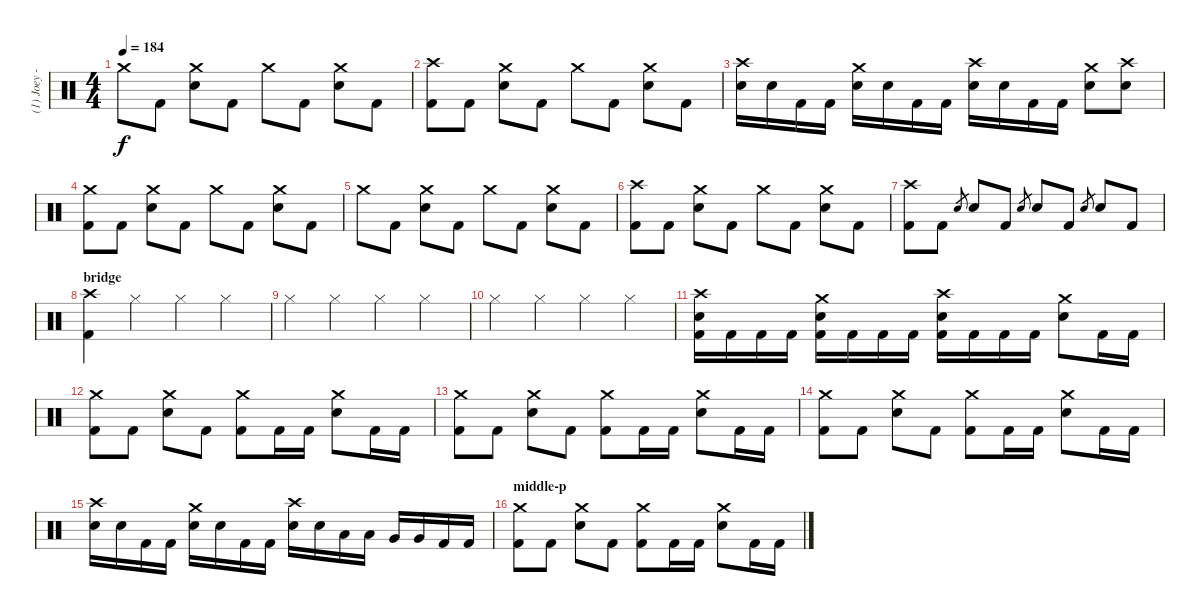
\track ("(1) Joey - drums" "(1) Joey -") {instrument percussion}
\staff {score}
\articulation defaults
\ts (4 4)
\tempo 184
\clef neutral
\ks c "Crash medium (hit)".8{dy f} "Kick (hit) 2".8
("Crash medium (hit)" "Electric Snare (hit)").8 "Kick (hit) 2".8 "Crash medium (hit)".8 "Kick (hit) 2".8 ("Crash medium (hit)" "Electric Snare (hit)").8 "Kick (hit) 2".8 |
("Crash high (hit)" "Kick (hit) 2").8 "Kick (hit) 2".8 ("Crash medium (hit)" "Electric Snare (hit)").8 "Kick (hit) 2".8 "Crash medium (hit)".8 "Kick (hit) 2".8 ("Crash medium (hit)" "Electric Snare (hit)").8 "Kick (hit) 2".8 |
("Crash high (hit)" "Electric Snare (hit)").16 "Electric Snare (hit)".16 "Kick (hit) 2".16 "Kick (hit) 2".16 ("Crash medium (hit)" "Electric Snare (hit)").16 "Electric Snare (hit)".16 "Kick (hit) 2".16 "Kick (hit) 2".16 ("Crash high (hit)" "Electric Snare (hit)").16 "Electric Snare (hit)".16 "Kick (hit) 2".16 "Kick (hit) 2".16 ("Crash medium (hit)" "Electric Snare (hit)").8 ("Crash high (hit)" "Electric Snare (hit)").8 |
("Crash medium (hit)" "Kick (hit) 2").8 "Kick (hit) 2".8 ("Crash medium (hit)" "Electric Snare (hit)").8 "Kick (hit) 2".8 "Crash medium (hit)".8 "Kick (hit) 2".8 ("Crash medium (hit)" "Electric Snare (hit)").8 "Kick (hit) 2".8 |
"Crash medium (hit)".8 "Kick (hit) 2".8 ("Crash medium (hit)" "Electric Snare (hit)").8 "Kick (hit) 2".8 "Crash medium (hit)".8 "Kick (hit) 2".8 ("Crash medium (hit)" "Electric Snare (hit)").8 "Kick (hit) 2".8 |
("Crash high (hit)" "Kick (hit) 2").8 "Kick (hit) 2".8 ("Crash medium (hit)" "Electric Snare (hit)").8 "Kick (hit) 2".8 "Crash medium (hit)".8 "Kick (hit) 2".8 ("Crash medium (hit)" "Electric Snare (hit)").8 "Kick (hit) 2".8 |
("Crash high (hit)" "Kick (hit) 2").8 "Kick (hit) 2".8 "Electric Snare (hit)".8{gr} "Electric Snare (hit)".8 "Kick (hit) 2".8 "Electric Snare (hit)".8{gr} "Electric Snare (hit)".8 "Kick (hit) 2".8 "Electric Snare (hit)".8{gr} "Electric Snare (hit)".8 "Kick (hit) 2".8 |
\section ("" "bridge")
("Crash high (hit)" "Kick (hit) 2").4 "Hi-Hat (closed)".4 "Hi-Hat (closed)".4 "Hi-Hat (closed)".4 |
"Hi-Hat (closed)".4 "Hi-Hat (closed)".4 "Hi-Hat (closed)".4 "Hi-Hat (closed)".4 |
"Hi-Hat (closed)".4 "Hi-Hat (closed)".4 "Hi-Hat (closed)".4 "Hi-Hat (closed)".4 |
("Crash high (hit)" "Electric Snare (hit)" "Kick (hit) 2").16 "Kick (hit) 2".16 "Kick (hit) 2".16 "Kick (hit) 2".16 ("Crash medium (hit)" "Electric Snare (hit)" "Kick (hit) 2").16 "Kick (hit) 2".16 "Kick (hit) 2".16 "Kick (hit) 2".16 ("Crash high (hit)" "Electric Snare (hit)" "Kick (hit) 2").16 "Kick (hit) 2".16 "Kick (hit) 2".16 "Kick (hit) 2".16 ("Crash medium (hit)" "Electric Snare (hit)").8 "Kick (hit) 2".16 "Kick (hit) 2".16 |
("Crash medium (hit)" "Kick (hit) 2").8 "Kick (hit) 2".8 ("Crash medium (hit)" "Electric Snare (hit)").8 "Kick (hit) 2".8 ("Crash medium (hit)" "Kick (hit) 2").8 "Kick (hit) 2".16 "Kick (hit) 2".16 ("Crash medium (hit)" "Electric Snare (hit)").8 "Kick (hit) 2".16 "Kick (hit) 2".16 |
("Crash medium (hit)" "Kick (hit) 2").8 "Kick (hit) 2".8 ("Crash medium (hit)" "Electric Snare (hit)").8 "Kick (hit) 2".8 ("Crash medium (hit)" "Kick (hit) 2").8 "Kick (hit) 2".16 "Kick (hit) 2".16 ("Crash medium (hit)" "Electric Snare (hit)").8 "Kick (hit) 2".16 "Kick (hit) 2".16 |
("Crash medium (hit)" "Kick (hit) 2").8 "Kick (hit) 2".8 ("Crash medium (hit)" "Electric Snare (hit)").8 "Kick (hit) 2".8 ("Crash medium (hit)" "Kick (hit) 2").8 "Kick (hit) 2".16 "Kick (hit) 2".16 ("Crash medium (hit)" "Electric Snare (hit)").8 "Kick (hit) 2".16 "Kick (hit) 2".16 |
("Crash high (hit)" "Electric Snare (hit)").16 "Electric Snare (hit)".16 "Kick (hit) 2".16 "Kick (hit) 2".16 ("Crash medium (hit)" "Electric Snare (hit)").16 "Electric Snare (hit)".16 "Kick (hit) 2".16 "Kick (hit) 2".16 ("Crash high (hit)" "Electric Snare (hit)").16 "Electric Snare (hit)".16 "Low Tom (hit)".16 "Low Tom (hit)".16 "Very Low Tom (hit)".16 "Very Low Tom (hit)".16 "Kick (hit) 2".16 "Kick (hit) 2".16 |
\section ("" "middle-p")
("Crash medium (hit)" "Kick (hit) 2").8 "Kick (hit) 2".8 ("Crash medium (hit)" "Electric Snare (hit)").8 "Kick (hit) 2".8 ("Crash medium (hit)" "Kick (hit) 2").8 "Kick (hit) 2".16 "Kick (hit) 2".16 ("Crash medium (hit)" "Electric Snare (hit)").8 "Kick (hit) 2".16 "Kick (hit) 2".16
